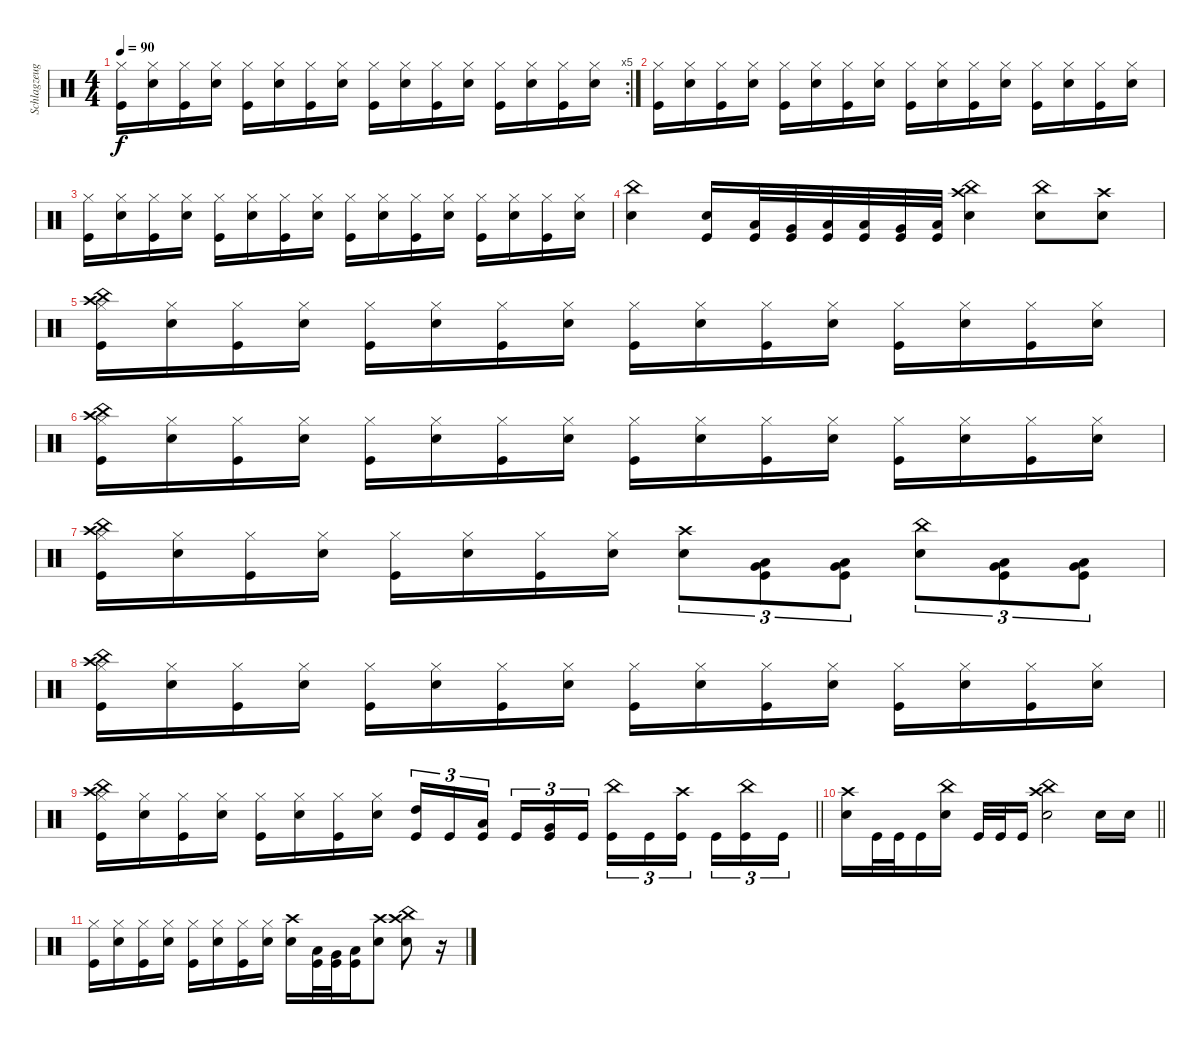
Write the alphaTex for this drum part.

\track ("Schlagzeug" "Schlagzeug") {instrument percussion}
\staff {score}
\articulation defaults
\rc 5
\ts (4 4)
\tempo 90
\clef neutral
\ks c
("Hi-Hat (closed)" "Kick (hit)").16{dy f} ("Hi-Hat (closed)" "Snare (hit) 2").16 ("Hi-Hat (closed)" "Kick (hit)").16 ("Hi-Hat (closed)" "Snare (hit) 2").16 ("Hi-Hat (closed)" "Kick (hit)").16 ("Hi-Hat (closed)" "Snare (hit) 2").16 ("Hi-Hat (closed)" "Kick (hit)").16 ("Hi-Hat (closed)" "Snare (hit) 2").16 ("Hi-Hat (closed)" "Kick (hit)").16 ("Hi-Hat (closed)" "Snare (hit) 2").16 ("Hi-Hat (closed)" "Kick (hit)").16 ("Hi-Hat (closed)" "Snare (hit) 2").16 ("Hi-Hat (closed)" "Kick (hit)").16 ("Hi-Hat (closed)" "Snare (hit) 2").16 ("Hi-Hat (closed)" "Kick (hit)").16 ("Hi-Hat (closed)" "Snare (hit) 2").16 |
("Hi-Hat (closed)" "Kick (hit)").16 ("Hi-Hat (closed)" "Snare (hit) 2").16 ("Hi-Hat (closed)" "Kick (hit)").16 ("Hi-Hat (closed)" "Snare (hit) 2").16 ("Hi-Hat (closed)" "Kick (hit)").16 ("Hi-Hat (closed)" "Snare (hit) 2").16 ("Hi-Hat (closed)" "Kick (hit)").16 ("Hi-Hat (closed)" "Snare (hit) 2").16 ("Hi-Hat (closed)" "Kick (hit)").16 ("Hi-Hat (closed)" "Snare (hit) 2").16 ("Hi-Hat (closed)" "Kick (hit)").16 ("Hi-Hat (closed)" "Snare (hit) 2").16 ("Hi-Hat (closed)" "Kick (hit)").16 ("Hi-Hat (closed)" "Snare (hit) 2").16 ("Hi-Hat (closed)" "Kick (hit)").16 ("Hi-Hat (closed)" "Snare (hit) 2").16 |
("Hi-Hat (closed)" "Kick (hit)").16 ("Hi-Hat (closed)" "Snare (hit) 2").16 ("Hi-Hat (closed)" "Kick (hit)").16 ("Hi-Hat (closed)" "Snare (hit) 2").16 ("Hi-Hat (closed)" "Kick (hit)").16 ("Hi-Hat (closed)" "Snare (hit) 2").16 ("Hi-Hat (closed)" "Kick (hit)").16 ("Hi-Hat (closed)" "Snare (hit) 2").16 ("Hi-Hat (closed)" "Kick (hit)").16 ("Hi-Hat (closed)" "Snare (hit) 2").16 ("Hi-Hat (closed)" "Kick (hit)").16 ("Hi-Hat (closed)" "Snare (hit) 2").16 ("Hi-Hat (closed)" "Kick (hit)").16 ("Hi-Hat (closed)" "Snare (hit) 2").16 ("Hi-Hat (closed)" "Kick (hit)").16 ("Hi-Hat (closed)" "Snare (hit) 2").16 |
("China (hit)" "Snare (hit) 2").4 ("Snare (hit) 2" "Kick (hit)").16 ("Low Tom (hit)" "Kick (hit)").32 ("Very Low Tom (hit)" "Kick (hit)").32 ("Low Floor Tom (hit)" "Kick (hit)").32 ("Low Floor Tom (hit)" "Kick (hit)").32 ("Very Low Tom (hit)" "Kick (hit)").32 ("Low Tom (hit)" "Kick (hit)").32 ("Crash high (hit)" "China (hit)" "Snare (hit) 2").4 ("China (hit)" "Snare (hit) 2").8 ("Crash high (hit)" "Snare (hit) 2").8 |
("Crash high (hit)" "China (hit)" "Hi-Hat (closed)" "Kick (hit)").16 ("Hi-Hat (closed)" "Snare (hit) 2").16 ("Hi-Hat (closed)" "Kick (hit)").16 ("Hi-Hat (closed)" "Snare (hit) 2").16 ("Hi-Hat (closed)" "Kick (hit)").16 ("Hi-Hat (closed)" "Snare (hit) 2").16 ("Hi-Hat (closed)" "Kick (hit)").16 ("Hi-Hat (closed)" "Snare (hit) 2").16 ("Hi-Hat (closed)" "Kick (hit)").16 ("Hi-Hat (closed)" "Snare (hit) 2").16 ("Hi-Hat (closed)" "Kick (hit)").16 ("Hi-Hat (closed)" "Snare (hit) 2").16 ("Hi-Hat (closed)" "Kick (hit)").16 ("Hi-Hat (closed)" "Snare (hit) 2").16 ("Hi-Hat (closed)" "Kick (hit)").16 ("Hi-Hat (closed)" "Snare (hit) 2").16 |
("Crash high (hit)" "China (hit)" "Hi-Hat (closed)" "Kick (hit)").16 ("Hi-Hat (closed)" "Snare (hit) 2").16 ("Hi-Hat (closed)" "Kick (hit)").16 ("Hi-Hat (closed)" "Snare (hit) 2").16 ("Hi-Hat (closed)" "Kick (hit)").16 ("Hi-Hat (closed)" "Snare (hit) 2").16 ("Hi-Hat (closed)" "Kick (hit)").16 ("Hi-Hat (closed)" "Snare (hit) 2").16 ("Hi-Hat (closed)" "Kick (hit)").16 ("Hi-Hat (closed)" "Snare (hit) 2").16 ("Hi-Hat (closed)" "Kick (hit)").16 ("Hi-Hat (closed)" "Snare (hit) 2").16 ("Hi-Hat (closed)" "Kick (hit)").16 ("Hi-Hat (closed)" "Snare (hit) 2").16 ("Hi-Hat (closed)" "Kick (hit)").16 ("Hi-Hat (closed)" "Snare (hit) 2").16 |
("Crash high (hit)" "China (hit)" "Hi-Hat (closed)" "Kick (hit)").16 ("Hi-Hat (closed)" "Snare (hit) 2").16 ("Hi-Hat (closed)" "Kick (hit)").16 ("Hi-Hat (closed)" "Snare (hit) 2").16 ("Hi-Hat (closed)" "Kick (hit)").16 ("Hi-Hat (closed)" "Snare (hit) 2").16 ("Hi-Hat (closed)" "Kick (hit)").16 ("Hi-Hat (closed)" "Snare (hit) 2").16 ("Crash high (hit)" "Snare (hit) 2").8{tu (3 2)} ("Very Low Tom (hit)" "Low Tom (hit)" "Kick (hit)").8{tu (3 2)} ("Very Low Tom (hit)" "Low Tom (hit)" "Kick (hit)").8{tu (3 2)} ("China (hit)" "Snare (hit) 2").8{tu (3 2)} ("Very Low Tom (hit)" "Low Tom (hit)" "Kick (hit)").8{tu (3 2)} ("Very Low Tom (hit)" "Low Tom (hit)" "Kick (hit)").8{tu (3 2)} |
("Crash high (hit)" "China (hit)" "Hi-Hat (closed)" "Kick (hit)").16 ("Hi-Hat (closed)" "Snare (hit) 2").16 ("Hi-Hat (closed)" "Kick (hit)").16 ("Hi-Hat (closed)" "Snare (hit) 2").16 ("Hi-Hat (closed)" "Kick (hit)").16 ("Hi-Hat (closed)" "Snare (hit) 2").16 ("Hi-Hat (closed)" "Kick (hit)").16 ("Hi-Hat (closed)" "Snare (hit) 2").16 ("Hi-Hat (closed)" "Kick (hit)").16 ("Hi-Hat (closed)" "Snare (hit) 2").16 ("Hi-Hat (closed)" "Kick (hit)").16 ("Hi-Hat (closed)" "Snare (hit) 2").16 ("Hi-Hat (closed)" "Kick (hit)").16 ("Hi-Hat (closed)" "Snare (hit) 2").16 ("Hi-Hat (closed)" "Kick (hit)").16 ("Hi-Hat (closed)" "Snare (hit) 2").16 |
\barLineRight lightlight
("Crash high (hit)" "China (hit)" "Hi-Hat (closed)" "Kick (hit)").16 ("Hi-Hat (closed)" "Snare (hit) 2").16 ("Hi-Hat (closed)" "Kick (hit)").16 ("Hi-Hat (closed)" "Snare (hit) 2").16 ("Hi-Hat (closed)" "Kick (hit)").16 ("Hi-Hat (closed)" "Snare (hit) 2").16 ("Hi-Hat (closed)" "Kick (hit)").16 ("Hi-Hat (closed)" "Snare (hit) 2").16 ("High Tom (hit)" "Kick (hit)").16{tu (3 2)} "Kick (hit)".16{tu (3 2)} ("Low Tom (hit)" "Kick (hit)").16{tu (3 2) beam splitsecondary} "Kick (hit)".16{tu (3 2)} ("Very Low Tom (hit)" "Kick (hit)").16{tu (3 2)} "Kick (hit)".16{tu (3 2)} ("China (hit)" "Kick (hit)").16{tu (3 2)} "Kick (hit)".16{tu (3 2)} ("Crash high (hit)" "Kick (hit)").16{tu (3 2) beam splitsecondary} "Kick (hit)".16{tu (3 2)} ("China (hit)" "Kick (hit)").16{tu (3 2)} "Kick (hit)".16{tu (3 2)} |
\barLineRight lightlight
("Crash high (hit)" "Snare (hit) 2").16 "Kick (hit)".32 "Kick (hit)".32 "Kick (hit)".16 ("China (hit)" "Snare (hit) 2").16 "Kick (hit)".32 "Kick (hit)".32 "Kick (hit)".16 ("Crash high (hit)" "China (hit)" "Snare (hit) 2").2 "Snare (hit) 2".16 "Snare (hit) 2".16 |
("Hi-Hat (closed)" "Kick (hit)").16 ("Hi-Hat (closed)" "Snare (hit) 2").16 ("Hi-Hat (closed)" "Kick (hit)").16 ("Hi-Hat (closed)" "Snare (hit) 2").16 ("Hi-Hat (closed)" "Kick (hit)").16 ("Hi-Hat (closed)" "Snare (hit) 2").16 ("Hi-Hat (closed)" "Kick (hit)").16 ("Hi-Hat (closed)" "Snare (hit) 2").16 ("Crash high (hit)" "Snare (hit) 2").16 ("Low Tom (hit)" "Kick (hit)").32 ("Very Low Tom (hit)" "Kick (hit)").32 ("Low Floor Tom (hit)" "Kick (hit)").16 ("Crash high (hit)" "Snare (hit) 2").8 ("China (hit)" "Crash high (hit)" "Snare (hit) 2").8 r.16
